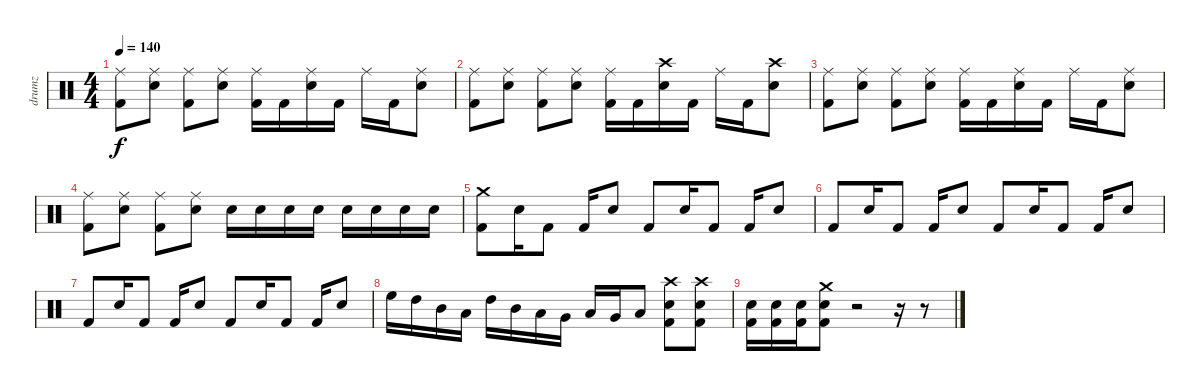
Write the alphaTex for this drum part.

\track ("drumz" "drumz") {instrument percussion}
\staff {score}
\articulation defaults
\ts (4 4)
\tempo 140
\clef neutral
\ks c
("Ride (middle)" "Kick (hit) 2").8{dy f} ("Ride (middle)" "Electric Snare (hit)").8 ("Ride (middle)" "Kick (hit) 2").8 ("Ride (middle)" "Electric Snare (hit)").8 ("Ride (middle)" "Kick (hit) 2").16 "Kick (hit) 2".16 ("Ride (middle)" "Electric Snare (hit)").16 "Kick (hit) 2".16 "Ride (middle)".16 "Kick (hit) 2".16 ("Ride (middle)" "Electric Snare (hit)").8 |
("Ride (middle)" "Kick (hit) 2").8 ("Ride (middle)" "Electric Snare (hit)").8 ("Ride (middle)" "Kick (hit) 2").8 ("Ride (middle)" "Electric Snare (hit)").8 ("Ride (middle)" "Kick (hit) 2").16 "Kick (hit) 2".16 ("Crash high (hit)" "Electric Snare (hit)").16 "Kick (hit) 2".16 "Ride (middle)".16 "Kick (hit) 2".16 ("Crash high (hit)" "Electric Snare (hit)").8 |
("Ride (middle)" "Kick (hit) 2").8 ("Ride (middle)" "Electric Snare (hit)").8 ("Ride (middle)" "Kick (hit) 2").8 ("Ride (middle)" "Electric Snare (hit)").8 ("Ride (middle)" "Kick (hit) 2").16 "Kick (hit) 2".16 ("Ride (middle)" "Electric Snare (hit)").16 "Kick (hit) 2".16 "Ride (middle)".16 "Kick (hit) 2".16 ("Ride (middle)" "Electric Snare (hit)").8 |
("Ride (middle)" "Kick (hit) 2").8 ("Ride (middle)" "Electric Snare (hit)").8 ("Ride (middle)" "Kick (hit) 2").8 ("Ride (middle)" "Electric Snare (hit)").8 "Electric Snare (hit)".16 "Electric Snare (hit)".16 "Electric Snare (hit)".16 "Electric Snare (hit)".16 "Electric Snare (hit)".16 "Electric Snare (hit)".16 "Electric Snare (hit)".16 "Electric Snare (hit)".16 |
("Crash medium (hit)" "Kick (hit) 2").8 "Electric Snare (hit)".16 "Kick (hit) 2".8 "Kick (hit) 2".16 "Electric Snare (hit)".8 "Kick (hit) 2".8 "Electric Snare (hit)".16 "Kick (hit) 2".8 "Kick (hit) 2".16 "Electric Snare (hit)".8 |
"Kick (hit) 2".8 "Electric Snare (hit)".16 "Kick (hit) 2".8 "Kick (hit) 2".16 "Electric Snare (hit)".8 "Kick (hit) 2".8 "Electric Snare (hit)".16 "Kick (hit) 2".8 "Kick (hit) 2".16 "Electric Snare (hit)".8 |
"Kick (hit) 2".8 "Electric Snare (hit)".16 "Kick (hit) 2".8 "Kick (hit) 2".16 "Electric Snare (hit)".8 "Kick (hit) 2".8 "Electric Snare (hit)".16 "Kick (hit) 2".8 "Kick (hit) 2".16 "Electric Snare (hit)".8 |
"High Floor Tom (hit)".16 "High Tom (hit)".16 "Mid Tom (hit)".16 "Low Tom (hit)".16 "High Tom (hit)".16 "Mid Tom (hit)".16 "Low Tom (hit)".16 "Very Low Tom (hit)".16 "Low Tom (hit)".16 "Very Low Tom (hit)".16 "Low Floor Tom (hit)".8 ("Crash high (hit)" "Electric Snare (hit)" "Kick (hit) 2").8 ("Crash high (hit)" "Electric Snare (hit)" "Kick (hit) 2").8 |
("Electric Snare (hit)" "Kick (hit) 2").16 ("Electric Snare (hit)" "Kick (hit) 2").16 ("Electric Snare (hit)" "Kick (hit) 2").16 ("Crash medium (hit)" "Electric Snare (hit)" "Kick (hit) 2").8 r.2 r.16 r.8
